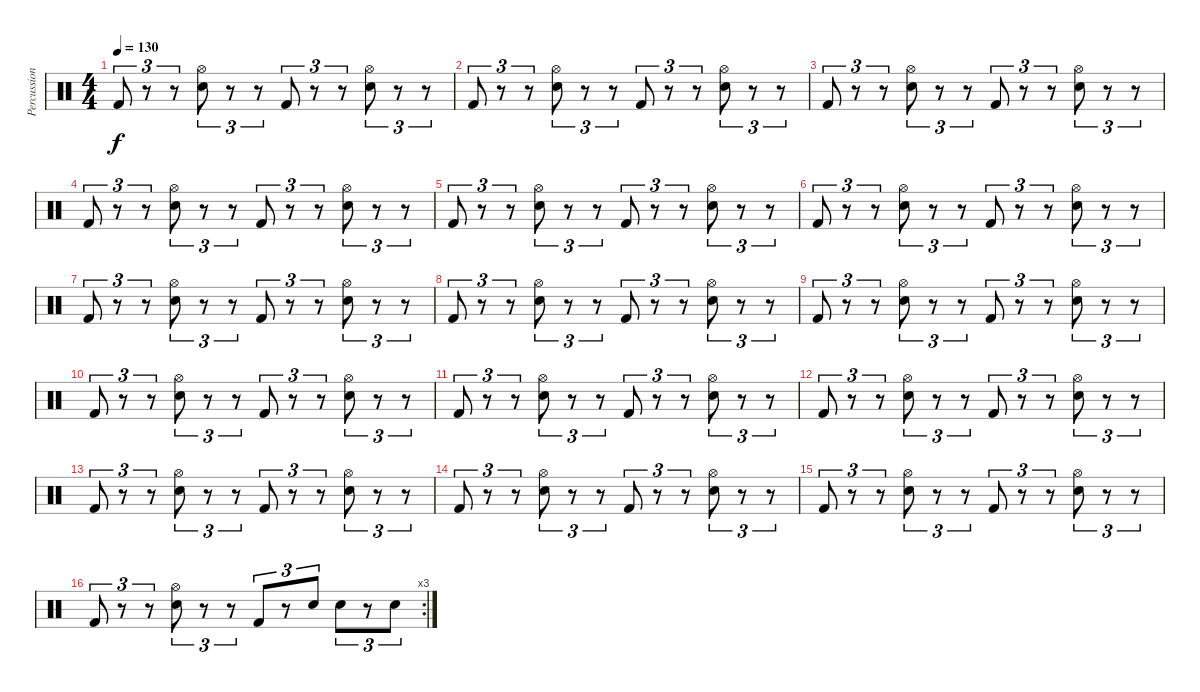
\track ("Percussion" "Percussion") {instrument percussion bank 2}
\staff {score}
\articulation defaults
\ts (4 4)
\tempo 130
\clef neutral
\ks c "Kick (hit) 2".8{tu (3 2) dy f}
r.8{tu (3 2)} r.8{tu (3 2)} ("Hi-Hat (open)" "Snare (hit) 2").8{tu (3 2)} r.8{tu (3 2)} r.8{tu (3 2)} "Kick (hit) 2".8{tu (3 2)} r.8{tu (3 2)} r.8{tu (3 2)} ("Hi-Hat (open)" "Snare (hit) 2").8{tu (3 2)} r.8{tu (3 2)} r.8{tu (3 2)} |
"Kick (hit) 2".8{tu (3 2)} r.8{tu (3 2)} r.8{tu (3 2)} ("Hi-Hat (open)" "Snare (hit) 2").8{tu (3 2)} r.8{tu (3 2)} r.8{tu (3 2)} "Kick (hit) 2".8{tu (3 2)} r.8{tu (3 2)} r.8{tu (3 2)} ("Hi-Hat (open)" "Snare (hit) 2").8{tu (3 2)} r.8{tu (3 2)} r.8{tu (3 2)} |
"Kick (hit) 2".8{tu (3 2)} r.8{tu (3 2)} r.8{tu (3 2)} ("Hi-Hat (open)" "Snare (hit) 2").8{tu (3 2)} r.8{tu (3 2)} r.8{tu (3 2)} "Kick (hit) 2".8{tu (3 2)} r.8{tu (3 2)} r.8{tu (3 2)} ("Hi-Hat (open)" "Snare (hit) 2").8{tu (3 2)} r.8{tu (3 2)} r.8{tu (3 2)} |
"Kick (hit) 2".8{tu (3 2)} r.8{tu (3 2)} r.8{tu (3 2)} ("Hi-Hat (open)" "Snare (hit) 2").8{tu (3 2)} r.8{tu (3 2)} r.8{tu (3 2)} "Kick (hit) 2".8{tu (3 2)} r.8{tu (3 2)} r.8{tu (3 2)} ("Hi-Hat (open)" "Snare (hit) 2").8{tu (3 2)} r.8{tu (3 2)} r.8{tu (3 2)} |
"Kick (hit) 2".8{tu (3 2)} r.8{tu (3 2)} r.8{tu (3 2)} ("Hi-Hat (open)" "Snare (hit) 2").8{tu (3 2)} r.8{tu (3 2)} r.8{tu (3 2)} "Kick (hit) 2".8{tu (3 2)} r.8{tu (3 2)} r.8{tu (3 2)} ("Hi-Hat (open)" "Snare (hit) 2").8{tu (3 2)} r.8{tu (3 2)} r.8{tu (3 2)} |
"Kick (hit) 2".8{tu (3 2)} r.8{tu (3 2)} r.8{tu (3 2)} ("Hi-Hat (open)" "Snare (hit) 2").8{tu (3 2)} r.8{tu (3 2)} r.8{tu (3 2)} "Kick (hit) 2".8{tu (3 2)} r.8{tu (3 2)} r.8{tu (3 2)} ("Hi-Hat (open)" "Snare (hit) 2").8{tu (3 2)} r.8{tu (3 2)} r.8{tu (3 2)} |
"Kick (hit) 2".8{tu (3 2)} r.8{tu (3 2)} r.8{tu (3 2)} ("Hi-Hat (open)" "Snare (hit) 2").8{tu (3 2)} r.8{tu (3 2)} r.8{tu (3 2)} "Kick (hit) 2".8{tu (3 2)} r.8{tu (3 2)} r.8{tu (3 2)} ("Hi-Hat (open)" "Snare (hit) 2").8{tu (3 2)} r.8{tu (3 2)} r.8{tu (3 2)} |
"Kick (hit) 2".8{tu (3 2)} r.8{tu (3 2)} r.8{tu (3 2)} ("Hi-Hat (open)" "Snare (hit) 2").8{tu (3 2)} r.8{tu (3 2)} r.8{tu (3 2)} "Kick (hit) 2".8{tu (3 2)} r.8{tu (3 2)} r.8{tu (3 2)} ("Hi-Hat (open)" "Snare (hit) 2").8{tu (3 2)} r.8{tu (3 2)} r.8{tu (3 2)} |
"Kick (hit) 2".8{tu (3 2)} r.8{tu (3 2)} r.8{tu (3 2)} ("Hi-Hat (open)" "Snare (hit) 2").8{tu (3 2)} r.8{tu (3 2)} r.8{tu (3 2)} "Kick (hit) 2".8{tu (3 2)} r.8{tu (3 2)} r.8{tu (3 2)} ("Hi-Hat (open)" "Snare (hit) 2").8{tu (3 2)} r.8{tu (3 2)} r.8{tu (3 2)} |
"Kick (hit) 2".8{tu (3 2)} r.8{tu (3 2)} r.8{tu (3 2)} ("Hi-Hat (open)" "Snare (hit) 2").8{tu (3 2)} r.8{tu (3 2)} r.8{tu (3 2)} "Kick (hit) 2".8{tu (3 2)} r.8{tu (3 2)} r.8{tu (3 2)} ("Hi-Hat (open)" "Snare (hit) 2").8{tu (3 2)} r.8{tu (3 2)} r.8{tu (3 2)} |
"Kick (hit) 2".8{tu (3 2)} r.8{tu (3 2)} r.8{tu (3 2)} ("Hi-Hat (open)" "Snare (hit) 2").8{tu (3 2)} r.8{tu (3 2)} r.8{tu (3 2)} "Kick (hit) 2".8{tu (3 2)} r.8{tu (3 2)} r.8{tu (3 2)} ("Hi-Hat (open)" "Snare (hit) 2").8{tu (3 2)} r.8{tu (3 2)} r.8{tu (3 2)} |
"Kick (hit) 2".8{tu (3 2)} r.8{tu (3 2)} r.8{tu (3 2)} ("Hi-Hat (open)" "Snare (hit) 2").8{tu (3 2)} r.8{tu (3 2)} r.8{tu (3 2)} "Kick (hit) 2".8{tu (3 2)} r.8{tu (3 2)} r.8{tu (3 2)} ("Hi-Hat (open)" "Snare (hit) 2").8{tu (3 2)} r.8{tu (3 2)} r.8{tu (3 2)} |
"Kick (hit) 2".8{tu (3 2)} r.8{tu (3 2)} r.8{tu (3 2)} ("Hi-Hat (open)" "Snare (hit) 2").8{tu (3 2)} r.8{tu (3 2)} r.8{tu (3 2)} "Kick (hit) 2".8{tu (3 2)} r.8{tu (3 2)} r.8{tu (3 2)} ("Hi-Hat (open)" "Snare (hit) 2").8{tu (3 2)} r.8{tu (3 2)} r.8{tu (3 2)} |
"Kick (hit) 2".8{tu (3 2)} r.8{tu (3 2)} r.8{tu (3 2)} ("Hi-Hat (open)" "Snare (hit) 2").8{tu (3 2)} r.8{tu (3 2)} r.8{tu (3 2)} "Kick (hit) 2".8{tu (3 2)} r.8{tu (3 2)} r.8{tu (3 2)} ("Hi-Hat (open)" "Snare (hit) 2").8{tu (3 2)} r.8{tu (3 2)} r.8{tu (3 2)} |
"Kick (hit) 2".8{tu (3 2)} r.8{tu (3 2)} r.8{tu (3 2)} ("Hi-Hat (open)" "Snare (hit) 2").8{tu (3 2)} r.8{tu (3 2)} r.8{tu (3 2)} "Kick (hit) 2".8{tu (3 2)} r.8{tu (3 2)} r.8{tu (3 2)} ("Hi-Hat (open)" "Snare (hit) 2").8{tu (3 2)} r.8{tu (3 2)} r.8{tu (3 2)} |
\rc 3 "Kick (hit) 2".8{tu (3 2)}
r.8{tu (3 2)} r.8{tu (3 2)} ("Hi-Hat (open)" "Snare (hit) 2").8{tu (3 2)} r.8{tu (3 2)} r.8{tu (3 2)} "Kick (hit) 2".8{tu (3 2)} r.8{tu (3 2)} "Snare (hit) 2".8{tu (3 2)} "Snare (hit) 2".8{tu (3 2)} r.8{tu (3 2)} "Snare (hit) 2".8{tu (3 2)}
